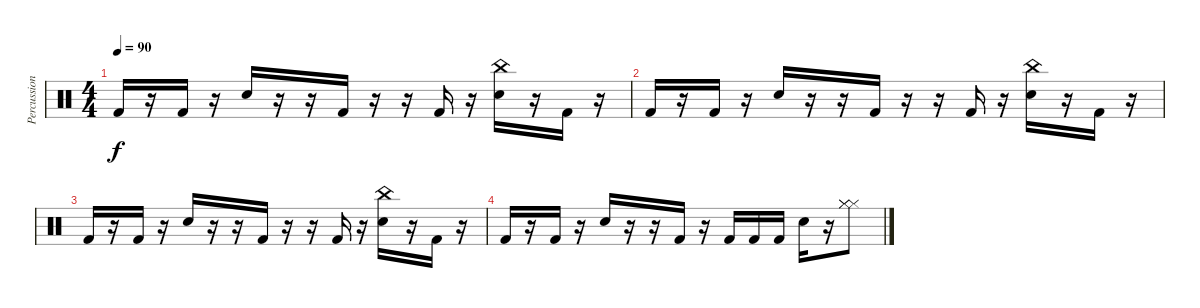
\track ("Percussion" "Percussion") {instrument percussion}
\staff {score}
\articulation defaults
\ts (4 4)
\tempo 90
\clef neutral
\ks c "Kick (hit) 2".16{dy f}
r.16 "Kick (hit) 2".16 r.16 "Snare (hit) 2".16 r.16 r.16 "Kick (hit) 2".16 r.16 r.16 "Kick (hit) 2".16 r.16 ("China (hit)" "Snare (hit) 2").16 r.16 "Kick (hit) 2".16 r.16 |
"Kick (hit) 2".16 r.16 "Kick (hit) 2".16 r.16 "Snare (hit) 2".16 r.16 r.16 "Kick (hit) 2".16 r.16 r.16 "Kick (hit) 2".16 r.16 ("China (hit)" "Snare (hit) 2").16 r.16 "Kick (hit) 2".16 r.16 |
"Kick (hit) 2".16 r.16 "Kick (hit) 2".16 r.16 "Snare (hit) 2".16 r.16 r.16 "Kick (hit) 2".16 r.16 r.16 "Kick (hit) 2".16 r.16 ("China (hit)" "Snare (hit) 2").16 r.16 "Kick (hit) 2".16 r.16 |
"Kick (hit) 2".16 r.16 "Kick (hit) 2".16 r.16 "Snare (hit) 2".16 r.16 r.16 "Kick (hit) 2".16 r.16 "Kick (hit) 2".16 "Kick (hit) 2".16 "Kick (hit) 2".16 "Snare (hit) 2".16 r.16 ("Hi-Hat (closed)" "Hi-Hat (closed)" "Hi-Hat (closed)").8
